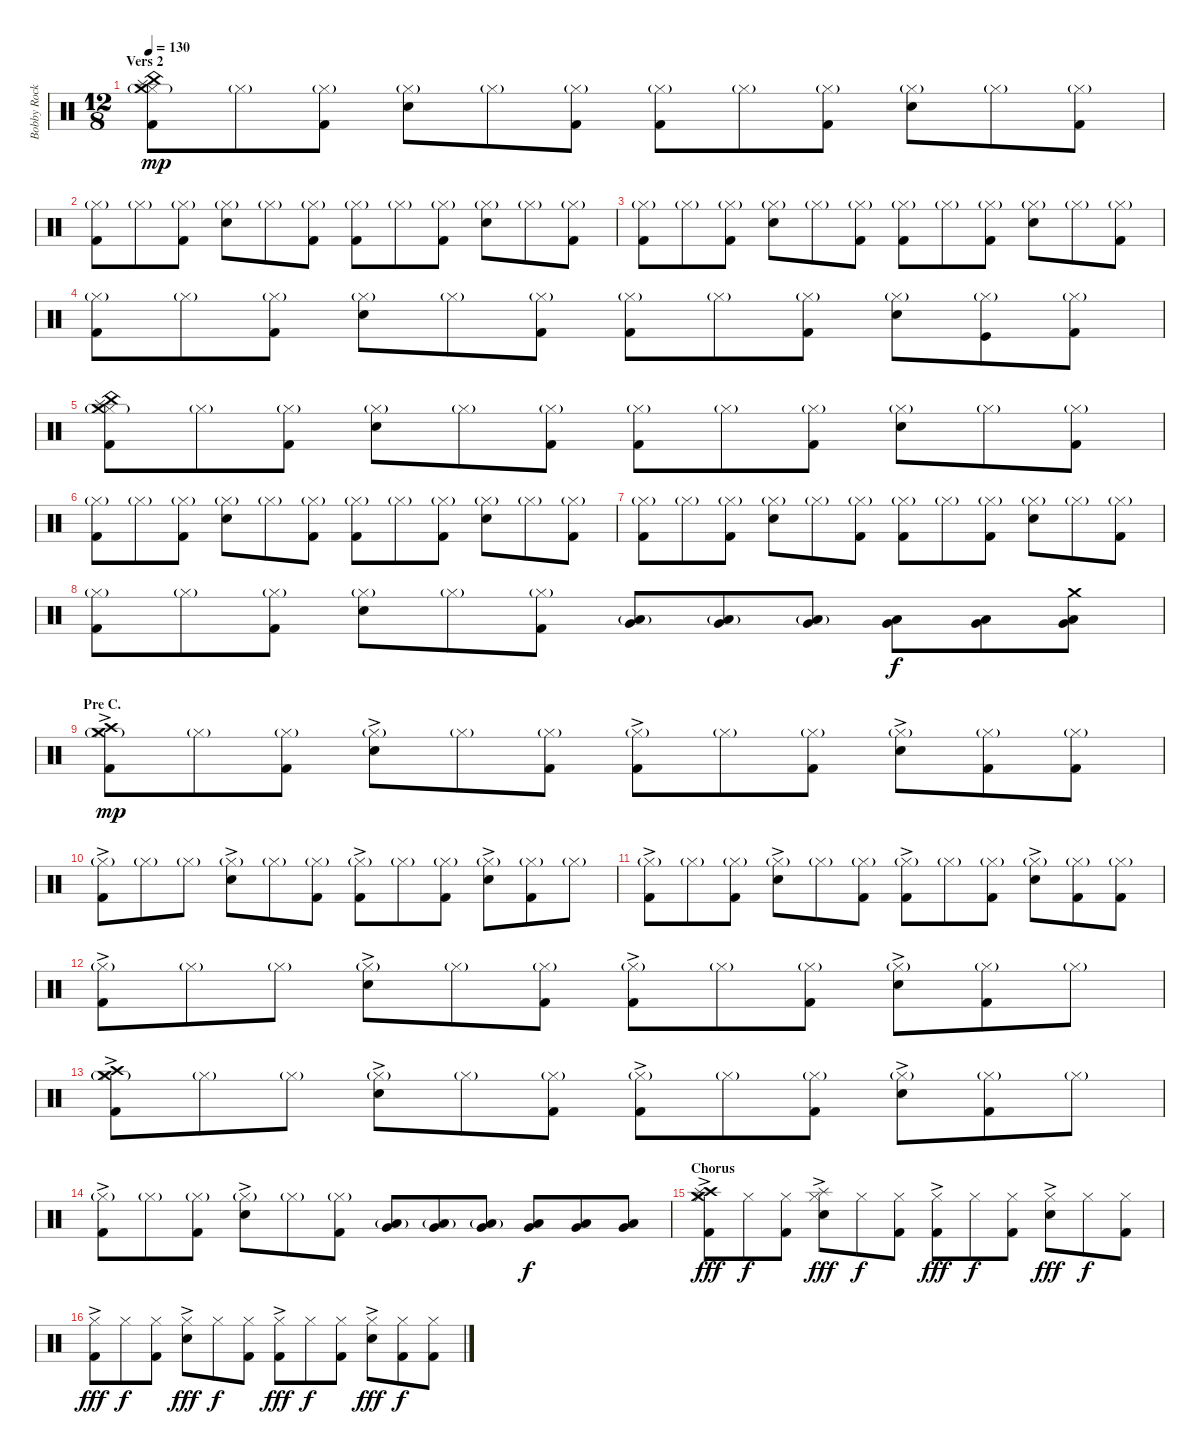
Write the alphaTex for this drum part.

\track ("Bobby Rock - drums" "Bobby Rock") {instrument percussion}
\staff {score}
\articulation defaults
\ts (12 8)
\section ("" "Vers 2")
\tempo 130
\clef neutral
\ks c
("Hi-Hat (closed)"{g} "Splash (hit)" "Crash medium (hit)" "China (hit)" "Kick (hit) 2").8{dy mp} "Hi-Hat (closed)"{g}.8 ("Hi-Hat (closed)"{g} "Kick (hit) 2").8 ("Hi-Hat (closed)"{g} "Snare (hit) 2").8 "Hi-Hat (closed)"{g}.8 ("Hi-Hat (closed)"{g} "Kick (hit) 2").8 ("Hi-Hat (closed)"{g} "Kick (hit) 2").8 "Hi-Hat (closed)"{g}.8 ("Hi-Hat (closed)"{g} "Kick (hit) 2").8 ("Hi-Hat (closed)"{g} "Snare (hit) 2").8 "Hi-Hat (closed)"{g}.8 ("Hi-Hat (closed)"{g} "Kick (hit) 2").8 |
("Hi-Hat (closed)"{g} "Kick (hit) 2").8 "Hi-Hat (closed)"{g}.8 ("Hi-Hat (closed)"{g} "Kick (hit) 2").8 ("Hi-Hat (closed)"{g} "Snare (hit) 2").8 "Hi-Hat (closed)"{g}.8 ("Hi-Hat (closed)"{g} "Kick (hit) 2").8 ("Hi-Hat (closed)"{g} "Kick (hit) 2").8 "Hi-Hat (closed)"{g}.8 ("Hi-Hat (closed)"{g} "Kick (hit) 2").8 ("Hi-Hat (closed)"{g} "Snare (hit) 2").8 "Hi-Hat (closed)"{g}.8 ("Hi-Hat (closed)"{g} "Kick (hit) 2").8 |
("Hi-Hat (closed)"{g} "Kick (hit) 2").8 "Hi-Hat (closed)"{g}.8 ("Hi-Hat (closed)"{g} "Kick (hit) 2").8 ("Hi-Hat (closed)"{g} "Snare (hit) 2").8 "Hi-Hat (closed)"{g}.8 ("Hi-Hat (closed)"{g} "Kick (hit) 2").8 ("Hi-Hat (closed)"{g} "Kick (hit) 2").8 "Hi-Hat (closed)"{g}.8 ("Hi-Hat (closed)"{g} "Kick (hit) 2").8 ("Hi-Hat (closed)"{g} "Snare (hit) 2").8 "Hi-Hat (closed)"{g}.8 ("Hi-Hat (closed)"{g} "Kick (hit) 2").8 |
("Hi-Hat (closed)"{g} "Kick (hit) 2").8 "Hi-Hat (closed)"{g}.8 ("Hi-Hat (closed)"{g} "Kick (hit) 2").8 ("Hi-Hat (closed)"{g} "Snare (hit) 2").8 "Hi-Hat (closed)"{g}.8 ("Hi-Hat (closed)"{g} "Kick (hit) 2").8 ("Hi-Hat (closed)"{g} "Kick (hit) 2").8 "Hi-Hat (closed)"{g}.8 ("Hi-Hat (closed)"{g} "Kick (hit) 2").8 ("Hi-Hat (closed)"{g} "Snare (hit) 2").8 ("Hi-Hat (closed)"{g} "Kick (hit)").8 ("Hi-Hat (closed)"{g} "Kick (hit) 2").8 |
("Hi-Hat (closed)"{g} "Splash (hit)" "Crash medium (hit)" "China (hit)" "Kick (hit) 2").8 "Hi-Hat (closed)"{g}.8 ("Hi-Hat (closed)"{g} "Kick (hit) 2").8 ("Hi-Hat (closed)"{g} "Snare (hit) 2").8 "Hi-Hat (closed)"{g}.8 ("Hi-Hat (closed)"{g} "Kick (hit) 2").8 ("Hi-Hat (closed)"{g} "Kick (hit) 2").8 "Hi-Hat (closed)"{g}.8 ("Hi-Hat (closed)"{g} "Kick (hit) 2").8 ("Hi-Hat (closed)"{g} "Snare (hit) 2").8 "Hi-Hat (closed)"{g}.8 ("Hi-Hat (closed)"{g} "Kick (hit) 2").8 |
("Hi-Hat (closed)"{g} "Kick (hit) 2").8 "Hi-Hat (closed)"{g}.8 ("Hi-Hat (closed)"{g} "Kick (hit) 2").8 ("Hi-Hat (closed)"{g} "Snare (hit) 2").8 "Hi-Hat (closed)"{g}.8 ("Hi-Hat (closed)"{g} "Kick (hit) 2").8 ("Hi-Hat (closed)"{g} "Kick (hit) 2").8 "Hi-Hat (closed)"{g}.8 ("Hi-Hat (closed)"{g} "Kick (hit) 2").8 ("Hi-Hat (closed)"{g} "Snare (hit) 2").8 "Hi-Hat (closed)"{g}.8 ("Hi-Hat (closed)"{g} "Kick (hit) 2").8 |
("Hi-Hat (closed)"{g} "Kick (hit) 2").8 "Hi-Hat (closed)"{g}.8 ("Hi-Hat (closed)"{g} "Kick (hit) 2").8 ("Hi-Hat (closed)"{g} "Snare (hit) 2").8 "Hi-Hat (closed)"{g}.8 ("Hi-Hat (closed)"{g} "Kick (hit) 2").8 ("Hi-Hat (closed)"{g} "Kick (hit) 2").8 "Hi-Hat (closed)"{g}.8 ("Hi-Hat (closed)"{g} "Kick (hit) 2").8 ("Hi-Hat (closed)"{g} "Snare (hit) 2").8 "Hi-Hat (closed)"{g}.8 ("Hi-Hat (closed)"{g} "Kick (hit) 2").8 |
("Hi-Hat (closed)"{g} "Kick (hit) 2").8 "Hi-Hat (closed)"{g}.8 ("Hi-Hat (closed)"{g} "Kick (hit) 2").8 ("Hi-Hat (closed)"{g} "Snare (hit) 2").8 "Hi-Hat (closed)"{g}.8 ("Hi-Hat (closed)"{g} "Kick (hit) 2").8 ("Very Low Tom (hit)" "Low Floor Tom (hit)"{g}).8 ("Very Low Tom (hit)" "Low Floor Tom (hit)"{g}).8 ("Very Low Tom (hit)" "Low Floor Tom (hit)"{g}).8 ("Very Low Tom (hit)" "Low Floor Tom (hit)").8{dy f} ("Very Low Tom (hit)" "Low Floor Tom (hit)").8 ("Crash medium (hit)" "Very Low Tom (hit)" "Low Floor Tom (hit)").8 |
\section ("" "Pre C.")
("Hi-Hat (closed)"{g ac} "Crash high (hit)" "Crash medium (hit)" "Kick (hit) 2").8{dy mp} "Hi-Hat (closed)"{g}.8 ("Hi-Hat (closed)"{g} "Kick (hit) 2").8 ("Hi-Hat (closed)"{g ac} "Snare (hit) 2").8 "Hi-Hat (closed)"{g}.8 ("Hi-Hat (closed)"{g} "Kick (hit) 2").8 ("Hi-Hat (closed)"{g ac} "Kick (hit) 2").8 "Hi-Hat (closed)"{g}.8 ("Hi-Hat (closed)"{g} "Kick (hit) 2").8 ("Hi-Hat (closed)"{g ac} "Snare (hit) 2").8 ("Hi-Hat (closed)"{g} "Kick (hit) 2").8 ("Hi-Hat (closed)"{g} "Kick (hit) 2").8 |
("Hi-Hat (closed)"{g ac} "Kick (hit) 2").8 "Hi-Hat (closed)"{g}.8 "Hi-Hat (closed)"{g}.8 ("Hi-Hat (closed)"{g ac} "Snare (hit) 2").8 "Hi-Hat (closed)"{g}.8 ("Hi-Hat (closed)"{g} "Kick (hit) 2").8 ("Hi-Hat (closed)"{g ac} "Kick (hit) 2").8 "Hi-Hat (closed)"{g}.8 ("Hi-Hat (closed)"{g} "Kick (hit) 2").8 ("Hi-Hat (closed)"{g ac} "Snare (hit) 2").8 ("Hi-Hat (closed)"{g} "Kick (hit) 2").8 "Hi-Hat (closed)"{g}.8 |
("Hi-Hat (closed)"{g ac} "Kick (hit) 2").8 "Hi-Hat (closed)"{g}.8 ("Hi-Hat (closed)"{g} "Kick (hit) 2").8 ("Hi-Hat (closed)"{g ac} "Snare (hit) 2").8 "Hi-Hat (closed)"{g}.8 ("Hi-Hat (closed)"{g} "Kick (hit) 2").8 ("Hi-Hat (closed)"{g ac} "Kick (hit) 2").8 "Hi-Hat (closed)"{g}.8 ("Hi-Hat (closed)"{g} "Kick (hit) 2").8 ("Hi-Hat (closed)"{g ac} "Snare (hit) 2").8 ("Hi-Hat (closed)"{g} "Kick (hit) 2").8 ("Hi-Hat (closed)"{g} "Kick (hit) 2").8 |
("Hi-Hat (closed)"{g ac} "Kick (hit) 2").8 "Hi-Hat (closed)"{g}.8 "Hi-Hat (closed)"{g}.8 ("Hi-Hat (closed)"{g ac} "Snare (hit) 2").8 "Hi-Hat (closed)"{g}.8 ("Hi-Hat (closed)"{g} "Kick (hit) 2").8 ("Hi-Hat (closed)"{g ac} "Kick (hit) 2").8 "Hi-Hat (closed)"{g}.8 ("Hi-Hat (closed)"{g} "Kick (hit) 2").8 ("Hi-Hat (closed)"{g ac} "Snare (hit) 2").8 ("Hi-Hat (closed)"{g} "Kick (hit) 2").8 "Hi-Hat (closed)"{g}.8 |
("Hi-Hat (closed)"{g ac} "Crash high (hit)" "Crash medium (hit)" "Kick (hit) 2").8 "Hi-Hat (closed)"{g}.8 "Hi-Hat (closed)"{g}.8 ("Hi-Hat (closed)"{g ac} "Snare (hit) 2").8 "Hi-Hat (closed)"{g}.8 ("Hi-Hat (closed)"{g} "Kick (hit) 2").8 ("Hi-Hat (closed)"{g ac} "Kick (hit) 2").8 "Hi-Hat (closed)"{g}.8 ("Hi-Hat (closed)"{g} "Kick (hit) 2").8 ("Hi-Hat (closed)"{g ac} "Snare (hit) 2").8 ("Hi-Hat (closed)"{g} "Kick (hit) 2").8 "Hi-Hat (closed)"{g}.8 |
("Hi-Hat (closed)"{g ac} "Kick (hit) 2").8 "Hi-Hat (closed)"{g}.8 ("Hi-Hat (closed)"{g} "Kick (hit) 2").8 ("Hi-Hat (closed)"{g ac} "Snare (hit) 2").8 "Hi-Hat (closed)"{g}.8 ("Hi-Hat (closed)"{g} "Kick (hit) 2").8 ("Very Low Tom (hit)" "Low Floor Tom (hit)"{g}).8 ("Very Low Tom (hit)" "Low Floor Tom (hit)"{g}).8 ("Very Low Tom (hit)" "Low Floor Tom (hit)"{g}).8 ("Very Low Tom (hit)" "Low Floor Tom (hit)").8{dy f} ("Very Low Tom (hit)" "Low Floor Tom (hit)").8 ("Very Low Tom (hit)" "Low Floor Tom (hit)").8 |
\section ("" "Chorus")
("Hi-Hat (closed)"{ac} "Crash high (hit)" "Crash medium (hit)" "Splash (hit)" "Kick (hit) 2").8{dy fff} "Hi-Hat (closed)".8{dy f} ("Hi-Hat (closed)" "Kick (hit) 2").8 ("Hi-Hat (closed)"{ac} "Splash (hit)" "Snare (hit) 2").8{dy fff} "Hi-Hat (closed)".8{dy f} ("Hi-Hat (closed)" "Kick (hit) 2").8 ("Hi-Hat (closed)"{ac} "Kick (hit) 2").8{dy fff} "Hi-Hat (closed)".8{dy f} ("Hi-Hat (closed)" "Kick (hit) 2").8 ("Hi-Hat (closed)"{ac} "Snare (hit) 2").8{dy fff} "Hi-Hat (closed)".8{dy f} ("Hi-Hat (closed)" "Kick (hit) 2").8 |
("Hi-Hat (closed)"{ac} "Kick (hit) 2").8{dy fff} "Hi-Hat (closed)".8{dy f} ("Hi-Hat (closed)" "Kick (hit) 2").8 ("Hi-Hat (closed)"{ac} "Snare (hit) 2").8{dy fff} "Hi-Hat (closed)".8{dy f} ("Hi-Hat (closed)" "Kick (hit) 2").8 ("Hi-Hat (closed)"{ac} "Kick (hit) 2").8{dy fff} "Hi-Hat (closed)".8{dy f} ("Hi-Hat (closed)" "Kick (hit) 2").8 ("Hi-Hat (closed)"{ac} "Snare (hit) 2").8{dy fff} ("Hi-Hat (closed)" "Kick (hit) 2").8{dy f} ("Hi-Hat (closed)" "Kick (hit) 2").8
